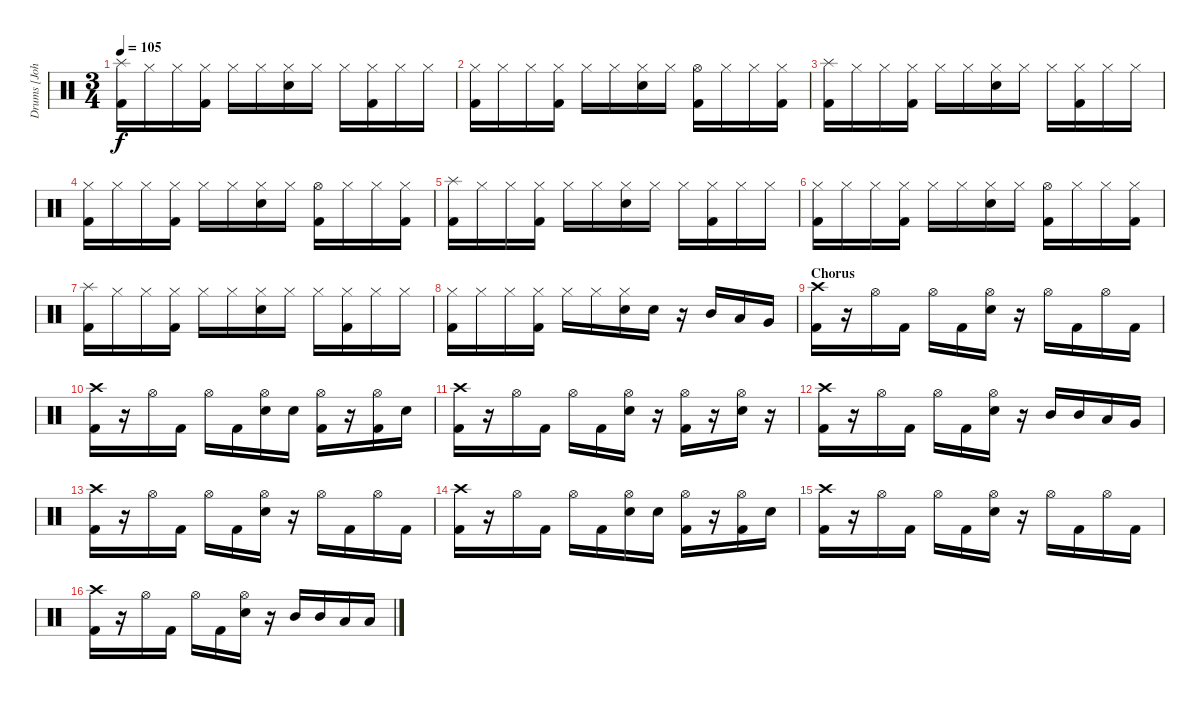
\track ("Drums [John Otto]" "Drums [Joh") {instrument percussion}
\staff {score}
\articulation defaults
\ts (3 4)
\tempo 105
\clef neutral
\ks c
("Splash (hit)" "Kick (hit) 2").16{dy f} "Hi-Hat (closed)".16 "Hi-Hat (closed)".16 ("Hi-Hat (closed)" "Kick (hit) 2").16 "Hi-Hat (closed)".16 "Hi-Hat (closed)".16 ("Hi-Hat (closed)" "Electric Snare (hit)").16 "Hi-Hat (closed)".16 "Hi-Hat (closed)".16 ("Hi-Hat (closed)" "Kick (hit) 2").16 "Hi-Hat (closed)".16 "Hi-Hat (closed)".16 |
("Hi-Hat (closed)" "Kick (hit) 2").16 "Hi-Hat (closed)".16 "Hi-Hat (closed)".16 ("Hi-Hat (closed)" "Kick (hit) 2").16 "Hi-Hat (closed)".16 "Hi-Hat (closed)".16 ("Hi-Hat (closed)" "Electric Snare (hit)").16 "Hi-Hat (closed)".16 ("Hi-Hat (open)" "Kick (hit) 2").16 "Hi-Hat (closed)".16 "Hi-Hat (closed)".16 ("Hi-Hat (closed)" "Kick (hit) 2").16 |
("Splash (hit)" "Kick (hit) 2").16 "Hi-Hat (closed)".16 "Hi-Hat (closed)".16 ("Hi-Hat (closed)" "Kick (hit) 2").16 "Hi-Hat (closed)".16 "Hi-Hat (closed)".16 ("Hi-Hat (closed)" "Electric Snare (hit)").16 "Hi-Hat (closed)".16 "Hi-Hat (closed)".16 ("Hi-Hat (closed)" "Kick (hit) 2").16 "Hi-Hat (closed)".16 "Hi-Hat (closed)".16 |
("Hi-Hat (closed)" "Kick (hit) 2").16 "Hi-Hat (closed)".16 "Hi-Hat (closed)".16 ("Hi-Hat (closed)" "Kick (hit) 2").16 "Hi-Hat (closed)".16 "Hi-Hat (closed)".16 ("Hi-Hat (closed)" "Electric Snare (hit)").16 "Hi-Hat (closed)".16 ("Hi-Hat (open)" "Kick (hit) 2").16 "Hi-Hat (closed)".16 "Hi-Hat (closed)".16 ("Hi-Hat (closed)" "Kick (hit) 2").16 |
("Splash (hit)" "Kick (hit) 2").16 "Hi-Hat (closed)".16 "Hi-Hat (closed)".16 ("Hi-Hat (closed)" "Kick (hit) 2").16 "Hi-Hat (closed)".16 "Hi-Hat (closed)".16 ("Hi-Hat (closed)" "Electric Snare (hit)").16 "Hi-Hat (closed)".16 "Hi-Hat (closed)".16 ("Hi-Hat (closed)" "Kick (hit) 2").16 "Hi-Hat (closed)".16 "Hi-Hat (closed)".16 |
("Hi-Hat (closed)" "Kick (hit) 2").16 "Hi-Hat (closed)".16 "Hi-Hat (closed)".16 ("Hi-Hat (closed)" "Kick (hit) 2").16 "Hi-Hat (closed)".16 "Hi-Hat (closed)".16 ("Hi-Hat (closed)" "Electric Snare (hit)").16 "Hi-Hat (closed)".16 ("Hi-Hat (open)" "Kick (hit) 2").16 "Hi-Hat (closed)".16 "Hi-Hat (closed)".16 ("Hi-Hat (closed)" "Kick (hit) 2").16 |
("Splash (hit)" "Kick (hit) 2").16 "Hi-Hat (closed)".16 "Hi-Hat (closed)".16 ("Hi-Hat (closed)" "Kick (hit) 2").16 "Hi-Hat (closed)".16 "Hi-Hat (closed)".16 ("Hi-Hat (closed)" "Electric Snare (hit)").16 "Hi-Hat (closed)".16 "Hi-Hat (closed)".16 ("Hi-Hat (closed)" "Kick (hit) 2").16 "Hi-Hat (closed)".16 "Hi-Hat (closed)".16 |
("Hi-Hat (closed)" "Kick (hit) 2").16 "Hi-Hat (closed)".16 "Hi-Hat (closed)".16 ("Hi-Hat (closed)" "Kick (hit) 2").16 "Hi-Hat (closed)".16 "Hi-Hat (closed)".16 ("Hi-Hat (closed)" "Electric Snare (hit)").16 "Electric Snare (hit)".16 r.16 "Mid Tom (hit)".16 "Low Tom (hit)".16 "Very Low Tom (hit)".16 |
\section ("" "Chorus")
("Crash high (hit)" "Kick (hit) 2").16 r.16 "Hi-Hat (open)".16 "Kick (hit) 2".16 "Hi-Hat (open)".16 "Kick (hit) 2".16 ("Hi-Hat (open)" "Electric Snare (hit)").16 r.16 "Hi-Hat (open)".16 "Kick (hit) 2".16 "Hi-Hat (open)".16 "Kick (hit) 2".16 |
("Crash high (hit)" "Kick (hit) 2").16 r.16 "Hi-Hat (open)".16 "Kick (hit) 2".16 "Hi-Hat (open)".16 "Kick (hit) 2".16 ("Hi-Hat (open)" "Electric Snare (hit)").16 "Electric Snare (hit)".16 ("Hi-Hat (open)" "Kick (hit) 2").16 r.16 ("Hi-Hat (open)" "Kick (hit) 2").16 "Electric Snare (hit)".16 |
("Crash high (hit)" "Kick (hit) 2").16 r.16 "Hi-Hat (open)".16 "Kick (hit) 2".16 "Hi-Hat (open)".16 "Kick (hit) 2".16 ("Hi-Hat (open)" "Electric Snare (hit)").16 r.16 ("Hi-Hat (open)" "Kick (hit) 2").16 r.16 ("Hi-Hat (open)" "Electric Snare (hit)").16 r.16 |
("Crash high (hit)" "Kick (hit) 2").16 r.16 "Hi-Hat (open)".16 "Kick (hit) 2".16 "Hi-Hat (open)".16 "Kick (hit) 2".16 ("Hi-Hat (open)" "Electric Snare (hit)").16 r.16 "Mid Tom (hit)".16 "Mid Tom (hit)".16 "Low Tom (hit)".16 "Very Low Tom (hit)".16 |
("Crash high (hit)" "Kick (hit) 2").16 r.16 "Hi-Hat (open)".16 "Kick (hit) 2".16 "Hi-Hat (open)".16 "Kick (hit) 2".16 ("Hi-Hat (open)" "Electric Snare (hit)").16 r.16 "Hi-Hat (open)".16 "Kick (hit) 2".16 "Hi-Hat (open)".16 "Kick (hit) 2".16 |
("Crash high (hit)" "Kick (hit) 2").16 r.16 "Hi-Hat (open)".16 "Kick (hit) 2".16 "Hi-Hat (open)".16 "Kick (hit) 2".16 ("Hi-Hat (open)" "Electric Snare (hit)").16 "Electric Snare (hit)".16 ("Hi-Hat (open)" "Kick (hit) 2").16 r.16 ("Hi-Hat (open)" "Kick (hit) 2").16 "Electric Snare (hit)".16 |
("Crash high (hit)" "Kick (hit) 2").16 r.16 "Hi-Hat (open)".16 "Kick (hit) 2".16 "Hi-Hat (open)".16 "Kick (hit) 2".16 ("Hi-Hat (open)" "Electric Snare (hit)").16 r.16 "Hi-Hat (open)".16 "Kick (hit) 2".16 "Hi-Hat (open)".16 "Kick (hit) 2".16 |
("Crash high (hit)" "Kick (hit) 2").16 r.16 "Hi-Hat (open)".16 "Kick (hit) 2".16 "Hi-Hat (open)".16 "Kick (hit) 2".16 ("Hi-Hat (open)" "Electric Snare (hit)").16 r.16 "Mid Tom (hit)".16 "Mid Tom (hit)".16 "Low Tom (hit)".16 "Low Tom (hit)".16
